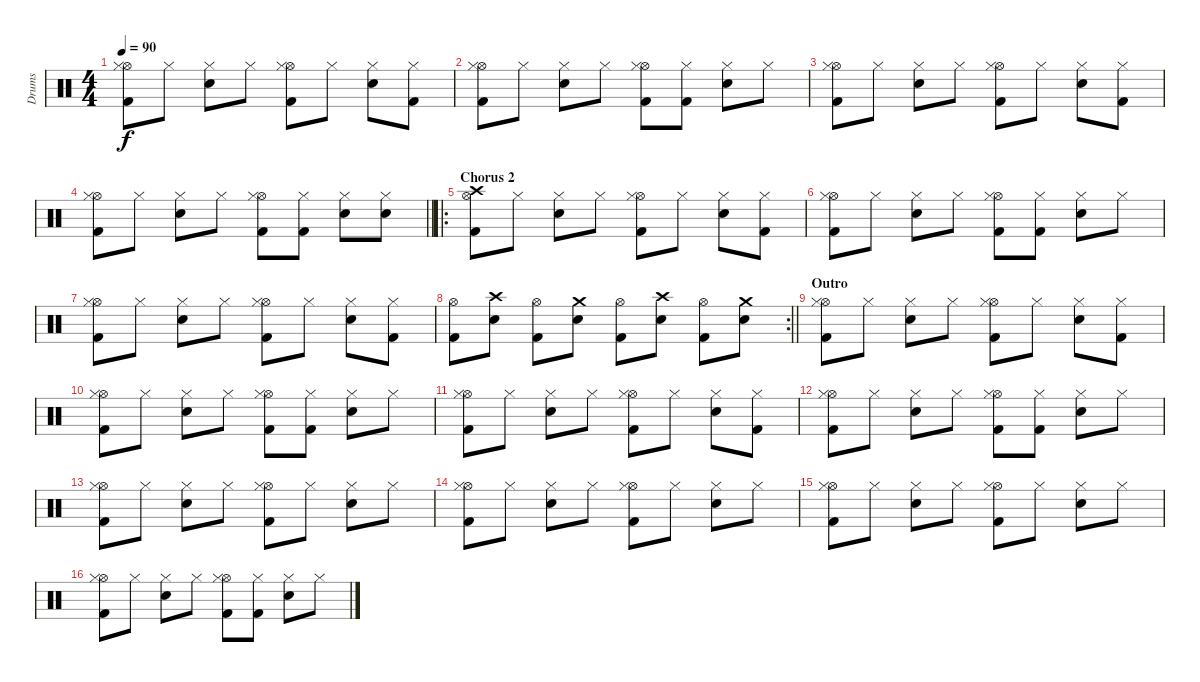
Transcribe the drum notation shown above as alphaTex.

\track ("Drums" "Drums") {instrument percussion}
\staff {score}
\articulation defaults
\ts (4 4)
\tempo 90
\clef neutral
\ks c
("Hi-Hat (open)" "Hi-Hat (closed)" "Kick (hit) 2").8{dy f} "Hi-Hat (closed)".8 ("Hi-Hat (closed)" "Electric Snare (hit)").8 "Hi-Hat (closed)".8 ("Hi-Hat (open)" "Hi-Hat (closed)" "Kick (hit) 2").8 "Hi-Hat (closed)".8 ("Hi-Hat (closed)" "Electric Snare (hit)").8 ("Hi-Hat (closed)" "Kick (hit) 2").8 |
("Hi-Hat (open)" "Hi-Hat (closed)" "Kick (hit) 2").8 "Hi-Hat (closed)".8 ("Hi-Hat (closed)" "Electric Snare (hit)").8 "Hi-Hat (closed)".8 ("Hi-Hat (open)" "Hi-Hat (closed)" "Kick (hit) 2").8 ("Hi-Hat (closed)" "Kick (hit) 2").8 ("Hi-Hat (closed)" "Electric Snare (hit)").8 "Hi-Hat (closed)".8 |
("Hi-Hat (open)" "Hi-Hat (closed)" "Kick (hit) 2").8 "Hi-Hat (closed)".8 ("Hi-Hat (closed)" "Electric Snare (hit)").8 "Hi-Hat (closed)".8 ("Hi-Hat (open)" "Hi-Hat (closed)" "Kick (hit) 2").8 "Hi-Hat (closed)".8 ("Hi-Hat (closed)" "Electric Snare (hit)").8 ("Hi-Hat (closed)" "Kick (hit) 2").8 |
\barLineRight lightlight
("Hi-Hat (open)" "Hi-Hat (closed)" "Kick (hit) 2").8 "Hi-Hat (closed)".8 ("Hi-Hat (closed)" "Electric Snare (hit)").8 "Hi-Hat (closed)".8 ("Hi-Hat (open)" "Hi-Hat (closed)" "Kick (hit) 2").8 ("Hi-Hat (closed)" "Kick (hit) 2").8 ("Hi-Hat (closed)" "Electric Snare (hit)").8 ("Hi-Hat (closed)" "Electric Snare (hit)").8 |
\ro
\section ("" "Chorus 2")
("Hi-Hat (open)" "Crash high (hit)" "Kick (hit) 2").8 "Hi-Hat (closed)".8 ("Hi-Hat (closed)" "Electric Snare (hit)").8 "Hi-Hat (closed)".8 ("Hi-Hat (open)" "Hi-Hat (closed)" "Kick (hit) 2").8 "Hi-Hat (closed)".8 ("Hi-Hat (closed)" "Electric Snare (hit)").8 ("Hi-Hat (closed)" "Kick (hit) 2").8 |
("Hi-Hat (open)" "Hi-Hat (closed)" "Kick (hit) 2").8 "Hi-Hat (closed)".8 ("Hi-Hat (closed)" "Electric Snare (hit)").8 "Hi-Hat (closed)".8 ("Hi-Hat (open)" "Hi-Hat (closed)" "Kick (hit) 2").8 ("Hi-Hat (closed)" "Kick (hit) 2").8 ("Hi-Hat (closed)" "Electric Snare (hit)").8 "Hi-Hat (closed)".8 |
("Hi-Hat (open)" "Hi-Hat (closed)" "Kick (hit) 2").8 "Hi-Hat (closed)".8 ("Hi-Hat (closed)" "Electric Snare (hit)").8 "Hi-Hat (closed)".8 ("Hi-Hat (open)" "Hi-Hat (closed)" "Kick (hit) 2").8 "Hi-Hat (closed)".8 ("Hi-Hat (closed)" "Electric Snare (hit)").8 ("Hi-Hat (closed)" "Kick (hit) 2").8 |
\rc 2
\barLineRight lightlight
("Hi-Hat (open)" "Kick (hit) 2").8 ("Crash high (hit)" "Electric Snare (hit)").8 ("Hi-Hat (open)" "Kick (hit) 2").8 ("Crash medium (hit)" "Electric Snare (hit)").8 ("Hi-Hat (open)" "Kick (hit) 2").8 ("Crash high (hit)" "Electric Snare (hit)").8 ("Hi-Hat (open)" "Kick (hit) 2").8 ("Crash medium (hit)" "Electric Snare (hit)").8 |
\section ("" "Outro")
("Hi-Hat (open)" "Hi-Hat (closed)" "Kick (hit) 2").8 "Hi-Hat (closed)".8 ("Hi-Hat (closed)" "Electric Snare (hit)").8 "Hi-Hat (closed)".8 ("Hi-Hat (open)" "Hi-Hat (closed)" "Kick (hit) 2").8 "Hi-Hat (closed)".8 ("Hi-Hat (closed)" "Electric Snare (hit)").8 ("Hi-Hat (closed)" "Kick (hit) 2").8 |
("Hi-Hat (open)" "Hi-Hat (closed)" "Kick (hit) 2").8 "Hi-Hat (closed)".8 ("Hi-Hat (closed)" "Electric Snare (hit)").8 "Hi-Hat (closed)".8 ("Hi-Hat (open)" "Hi-Hat (closed)" "Kick (hit) 2").8 ("Hi-Hat (closed)" "Kick (hit) 2").8 ("Hi-Hat (closed)" "Electric Snare (hit)").8 "Hi-Hat (closed)".8 |
("Hi-Hat (open)" "Hi-Hat (closed)" "Kick (hit) 2").8 "Hi-Hat (closed)".8 ("Hi-Hat (closed)" "Electric Snare (hit)").8 "Hi-Hat (closed)".8 ("Hi-Hat (open)" "Hi-Hat (closed)" "Kick (hit) 2").8 "Hi-Hat (closed)".8 ("Hi-Hat (closed)" "Electric Snare (hit)").8 ("Hi-Hat (closed)" "Kick (hit) 2").8 |
("Hi-Hat (open)" "Hi-Hat (closed)" "Kick (hit) 2").8 "Hi-Hat (closed)".8 ("Hi-Hat (closed)" "Electric Snare (hit)").8 "Hi-Hat (closed)".8 ("Hi-Hat (open)" "Hi-Hat (closed)" "Kick (hit) 2").8 ("Hi-Hat (closed)" "Kick (hit) 2").8 ("Hi-Hat (closed)" "Electric Snare (hit)").8 "Hi-Hat (closed)".8 |
("Hi-Hat (open)" "Hi-Hat (closed)" "Kick (hit) 2").8 "Hi-Hat (closed)".8 ("Hi-Hat (closed)" "Electric Snare (hit)").8 "Hi-Hat (closed)".8 ("Hi-Hat (open)" "Hi-Hat (closed)" "Kick (hit) 2").8 "Hi-Hat (closed)".8 ("Hi-Hat (closed)" "Electric Snare (hit)").8 "Hi-Hat (closed)".8 |
("Hi-Hat (open)" "Hi-Hat (closed)" "Kick (hit) 2").8 "Hi-Hat (closed)".8 ("Hi-Hat (closed)" "Electric Snare (hit)").8 "Hi-Hat (closed)".8 ("Hi-Hat (open)" "Hi-Hat (closed)" "Kick (hit) 2").8 "Hi-Hat (closed)".8 ("Hi-Hat (closed)" "Electric Snare (hit)").8 "Hi-Hat (closed)".8 |
("Hi-Hat (open)" "Hi-Hat (closed)" "Kick (hit) 2").8 "Hi-Hat (closed)".8 ("Hi-Hat (closed)" "Electric Snare (hit)").8 "Hi-Hat (closed)".8 ("Hi-Hat (open)" "Hi-Hat (closed)" "Kick (hit) 2").8 "Hi-Hat (closed)".8 ("Hi-Hat (closed)" "Electric Snare (hit)").8 "Hi-Hat (closed)".8 |
("Hi-Hat (open)" "Hi-Hat (closed)" "Kick (hit) 2").8 "Hi-Hat (closed)".8 ("Hi-Hat (closed)" "Electric Snare (hit)").8 "Hi-Hat (closed)".8 ("Hi-Hat (open)" "Hi-Hat (closed)" "Kick (hit) 2").8 ("Hi-Hat (closed)" "Kick (hit) 2").8 ("Hi-Hat (closed)" "Electric Snare (hit)").8 "Hi-Hat (closed)".8
